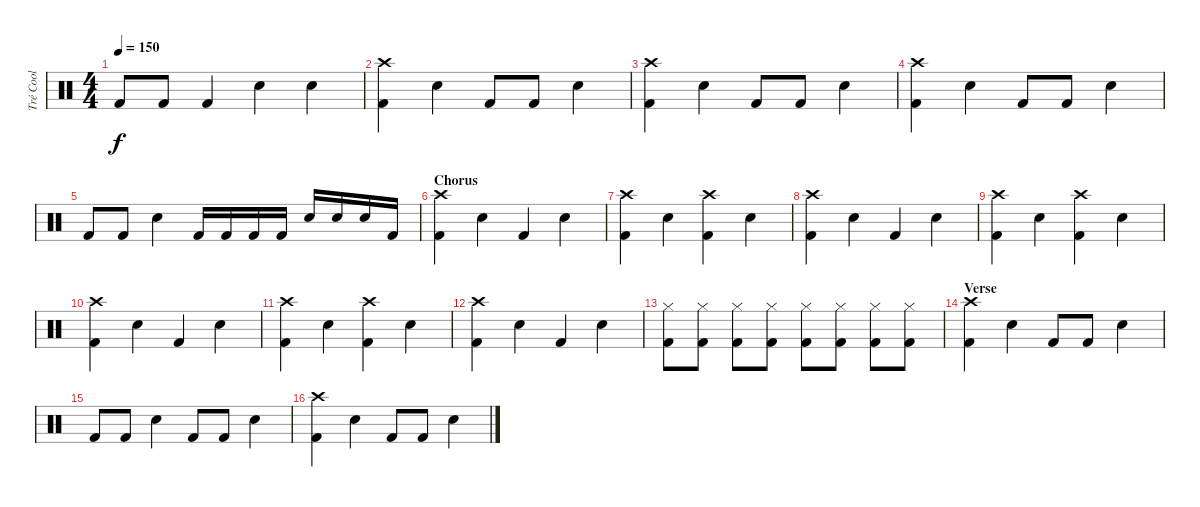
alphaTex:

\track ("Tré Cool" "Tré Cool") {instrument percussion}
\staff {score}
\articulation defaults
\ts (4 4)
\tempo 150
\clef neutral
\ks c "Kick (hit) 2".8{dy f} "Kick (hit) 2".8 "Kick (hit) 2".4 "Snare (hit) 2".4 "Snare (hit) 2".4
|
("Kick (hit) 2" "Crash high (hit)").4 "Snare (hit) 2".4 "Kick (hit) 2".8 "Kick (hit) 2".8 "Snare (hit) 2".4 |
("Kick (hit) 2" "Crash high (hit)").4 "Snare (hit) 2".4 "Kick (hit) 2".8 "Kick (hit) 2".8 "Snare (hit) 2".4 |
("Kick (hit) 2" "Crash high (hit)").4 "Snare (hit) 2".4 "Kick (hit) 2".8 "Kick (hit) 2".8 "Snare (hit) 2".4 |
"Kick (hit) 2".8 "Kick (hit) 2".8 "Snare (hit) 2".4 "Kick (hit) 2".16 "Kick (hit) 2".16 "Kick (hit) 2".16 "Kick (hit) 2".16 "Snare (hit) 2".16 "Snare (hit) 2".16 "Snare (hit) 2".16 "Kick (hit) 2".16 |
\section ("" "Chorus")
("Kick (hit) 2" "Crash high (hit)").4 "Snare (hit) 2".4 "Kick (hit) 2".4 "Snare (hit) 2".4 |
("Kick (hit) 2" "Crash high (hit)").4 "Snare (hit) 2".4 ("Kick (hit) 2" "Crash high (hit)").4 "Snare (hit) 2".4 |
("Kick (hit) 2" "Crash high (hit)").4 "Snare (hit) 2".4 "Kick (hit) 2".4 "Snare (hit) 2".4 |
("Kick (hit) 2" "Crash high (hit)").4 "Snare (hit) 2".4 ("Kick (hit) 2" "Crash high (hit)").4 "Snare (hit) 2".4 |
("Kick (hit) 2" "Crash high (hit)").4 "Snare (hit) 2".4 "Kick (hit) 2".4 "Snare (hit) 2".4 |
("Kick (hit) 2" "Crash high (hit)").4 "Snare (hit) 2".4 ("Kick (hit) 2" "Crash high (hit)").4 "Snare (hit) 2".4 |
("Kick (hit) 2" "Crash high (hit)").4 "Snare (hit) 2".4 "Kick (hit) 2".4 "Snare (hit) 2".4 |
("Kick (hit) 2" "Hi-Hat (closed)").8 ("Kick (hit) 2" "Hi-Hat (closed)").8 ("Kick (hit) 2" "Hi-Hat (closed)").8 ("Kick (hit) 2" "Hi-Hat (closed)").8 ("Kick (hit) 2" "Hi-Hat (closed)").8 ("Kick (hit) 2" "Hi-Hat (closed)").8 ("Kick (hit) 2" "Hi-Hat (closed)").8 ("Kick (hit) 2" "Hi-Hat (closed)").8 |
\section ("" "Verse")
("Kick (hit) 2" "Crash high (hit)").4 "Snare (hit) 2".4 "Kick (hit) 2".8 "Kick (hit) 2".8 "Snare (hit) 2".4 |
"Kick (hit) 2".8 "Kick (hit) 2".8 "Snare (hit) 2".4 "Kick (hit) 2".8 "Kick (hit) 2".8 "Snare (hit) 2".4 |
("Kick (hit) 2" "Crash high (hit)").4 "Snare (hit) 2".4 "Kick (hit) 2".8 "Kick (hit) 2".8 "Snare (hit) 2".4
